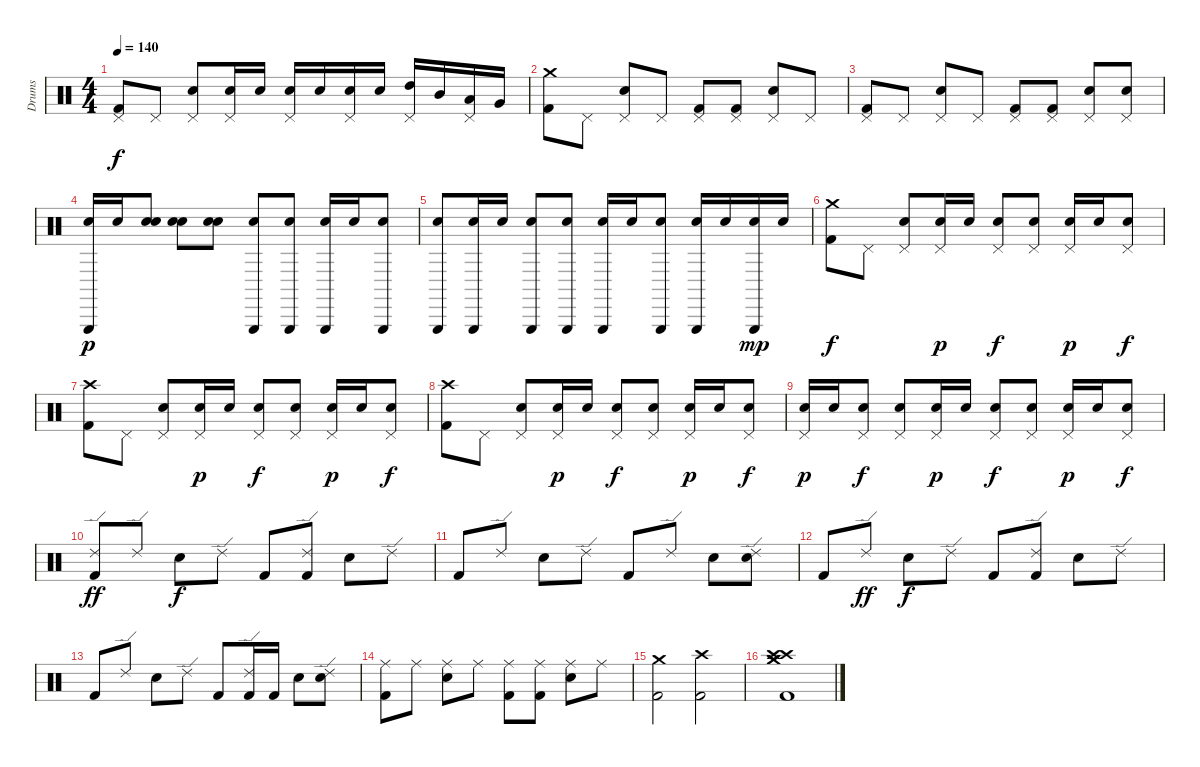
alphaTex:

\track ("Drums" "Drums") {instrument percussion}
\staff {score}
\articulation defaults
\ts (4 4)
\tempo 140
\clef neutral
\ks c
("Pedal Hi-Hat (hit)" "Kick (hit) 2").8{dy f} "Pedal Hi-Hat (hit)".8 ("Pedal Hi-Hat (hit)" "Electric Snare (hit)").8 ("Pedal Hi-Hat (hit)" "Electric Snare (hit)").16 "Electric Snare (hit)".16 ("Pedal Hi-Hat (hit)" "Electric Snare (hit)").16 "Electric Snare (hit)".16 ("Pedal Hi-Hat (hit)" "Electric Snare (hit)").16 "Electric Snare (hit)".16 ("Pedal Hi-Hat (hit)" "High Tom (hit)").16 "Mid Tom (hit)".16 ("Pedal Hi-Hat (hit)" "Low Tom (hit)").16 "Very Low Tom (hit)".16 |
("Crash medium (hit)" "Kick (hit) 2").8 "Pedal Hi-Hat (hit)".8 ("Pedal Hi-Hat (hit)" "Electric Snare (hit)").8 "Pedal Hi-Hat (hit)".8 ("Pedal Hi-Hat (hit)" "Kick (hit) 2").8 ("Pedal Hi-Hat (hit)" "Kick (hit) 2").8 ("Pedal Hi-Hat (hit)" "Electric Snare (hit)").8 "Pedal Hi-Hat (hit)".8 |
("Pedal Hi-Hat (hit)" "Kick (hit) 2").8 "Pedal Hi-Hat (hit)".8 ("Pedal Hi-Hat (hit)" "Electric Snare (hit)").8 "Pedal Hi-Hat (hit)".8 ("Pedal Hi-Hat (hit)" "Kick (hit) 2").8 ("Pedal Hi-Hat (hit)" "Kick (hit) 2").8 ("Pedal Hi-Hat (hit)" "Electric Snare (hit)").8 ("Pedal Hi-Hat (hit)" "Electric Snare (hit)").8 |
("Triangle (hit)" "Electric Snare (hit)").16{dy p} "Electric Snare (hit)".16 ("Snare (hit)" "Electric Snare (hit)").8 ("Snare (hit)" "Electric Snare (hit)").8 ("Snare (hit)" "Electric Snare (hit)").8 ("Triangle (hit)" "Electric Snare (hit)").8 ("Triangle (hit)" "Electric Snare (hit)").8 ("Triangle (hit)" "Electric Snare (hit)").16 "Electric Snare (hit)".16 ("Triangle (hit)" "Electric Snare (hit)").8 |
("Triangle (hit)" "Electric Snare (hit)").8 ("Triangle (hit)" "Electric Snare (hit)").16 "Electric Snare (hit)".16 ("Triangle (hit)" "Electric Snare (hit)").8 ("Triangle (hit)" "Electric Snare (hit)").8 ("Triangle (hit)" "Electric Snare (hit)").16 "Electric Snare (hit)".16 ("Triangle (hit)" "Electric Snare (hit)").8 ("Triangle (hit)" "Electric Snare (hit)").16 "Electric Snare (hit)".16 ("Triangle (hit)" "Electric Snare (hit)").16{dy mp} "Electric Snare (hit)".16 |
("Crash medium (hit)" "Kick (hit) 2").8{dy f} "Pedal Hi-Hat (hit)".8 ("Pedal Hi-Hat (hit)" "Electric Snare (hit)").8 ("Pedal Hi-Hat (hit)" "Electric Snare (hit)").16{dy p} "Electric Snare (hit)".16 ("Pedal Hi-Hat (hit)" "Electric Snare (hit)").8{dy f} ("Pedal Hi-Hat (hit)" "Electric Snare (hit)").8 ("Pedal Hi-Hat (hit)" "Electric Snare (hit)").16{dy p} "Electric Snare (hit)".16 ("Pedal Hi-Hat (hit)" "Electric Snare (hit)").8{dy f} |
("Crash high (hit)" "Kick (hit) 2").8 "Pedal Hi-Hat (hit)".8 ("Pedal Hi-Hat (hit)" "Electric Snare (hit)").8 ("Pedal Hi-Hat (hit)" "Electric Snare (hit)").16{dy p} "Electric Snare (hit)".16 ("Pedal Hi-Hat (hit)" "Electric Snare (hit)").8{dy f} ("Pedal Hi-Hat (hit)" "Electric Snare (hit)").8 ("Pedal Hi-Hat (hit)" "Electric Snare (hit)").16{dy p} "Electric Snare (hit)".16 ("Pedal Hi-Hat (hit)" "Electric Snare (hit)").8{dy f} |
("Crash high (hit)" "Kick (hit) 2").8 "Pedal Hi-Hat (hit)".8 ("Pedal Hi-Hat (hit)" "Electric Snare (hit)").8 ("Pedal Hi-Hat (hit)" "Electric Snare (hit)").16{dy p} "Electric Snare (hit)".16 ("Pedal Hi-Hat (hit)" "Electric Snare (hit)").8{dy f} ("Pedal Hi-Hat (hit)" "Electric Snare (hit)").8 ("Pedal Hi-Hat (hit)" "Electric Snare (hit)").16{dy p} "Electric Snare (hit)".16 ("Pedal Hi-Hat (hit)" "Electric Snare (hit)").8{dy f} |
("Pedal Hi-Hat (hit)" "Electric Snare (hit)").16{dy p} "Electric Snare (hit)".16 ("Pedal Hi-Hat (hit)" "Electric Snare (hit)").8{dy f} ("Pedal Hi-Hat (hit)" "Electric Snare (hit)").8 ("Pedal Hi-Hat (hit)" "Electric Snare (hit)").16{dy p} "Electric Snare (hit)".16 ("Pedal Hi-Hat (hit)" "Electric Snare (hit)").8{dy f} ("Pedal Hi-Hat (hit)" "Electric Snare (hit)").8 ("Pedal Hi-Hat (hit)" "Electric Snare (hit)").16{dy p} "Electric Snare (hit)".16 ("Pedal Hi-Hat (hit)" "Electric Snare (hit)").8{dy f} |
("Ride (edge) 2" "Kick (hit) 2").8{dy ff} "Ride (edge) 2".8 "Electric Snare (hit)".8{dy f} "Ride (edge) 2".8 "Kick (hit) 2".8 ("Ride (edge) 2" "Kick (hit) 2").8 "Electric Snare (hit)".8 "Ride (edge) 2".8 |
"Kick (hit) 2".8 "Ride (edge) 2".8 "Electric Snare (hit)".8 "Ride (edge) 2".8 "Kick (hit) 2".8 "Ride (edge) 2".8 "Electric Snare (hit)".8 ("Ride (edge) 2" "Electric Snare (hit)").8 |
"Kick (hit) 2".8 "Ride (edge) 2".8{dy ff} "Electric Snare (hit)".8{dy f} "Ride (edge) 2".8 "Kick (hit) 2".8 ("Ride (edge) 2" "Kick (hit) 2").8 "Electric Snare (hit)".8 "Ride (edge) 2".8 |
"Kick (hit) 2".8 "Ride (edge) 2".8 "Electric Snare (hit)".8 "Ride (edge) 2".8 "Kick (hit) 2".8 ("Ride (edge) 2" "Kick (hit) 2").16 "Kick (hit) 2".16 "Electric Snare (hit)".8 ("Ride (edge) 2" "Electric Snare (hit)").8 |
("Ride (middle)" "Kick (hit) 2").8 "Ride (middle)".8 ("Ride (middle)" "Electric Snare (hit)").8 "Ride (middle)".8 ("Ride (middle)" "Kick (hit) 2").8 ("Ride (middle)" "Kick (hit) 2").8 ("Ride (middle)" "Electric Snare (hit)").8 "Ride (middle)".8 |
("Crash medium (hit)" "Kick (hit) 2").2 ("Crash high (hit)" "Kick (hit) 2").2 |
("Crash high (hit)" "Crash high (hit)" "Crash medium (hit)" "Crash medium (hit)" "Kick (hit) 2").1
